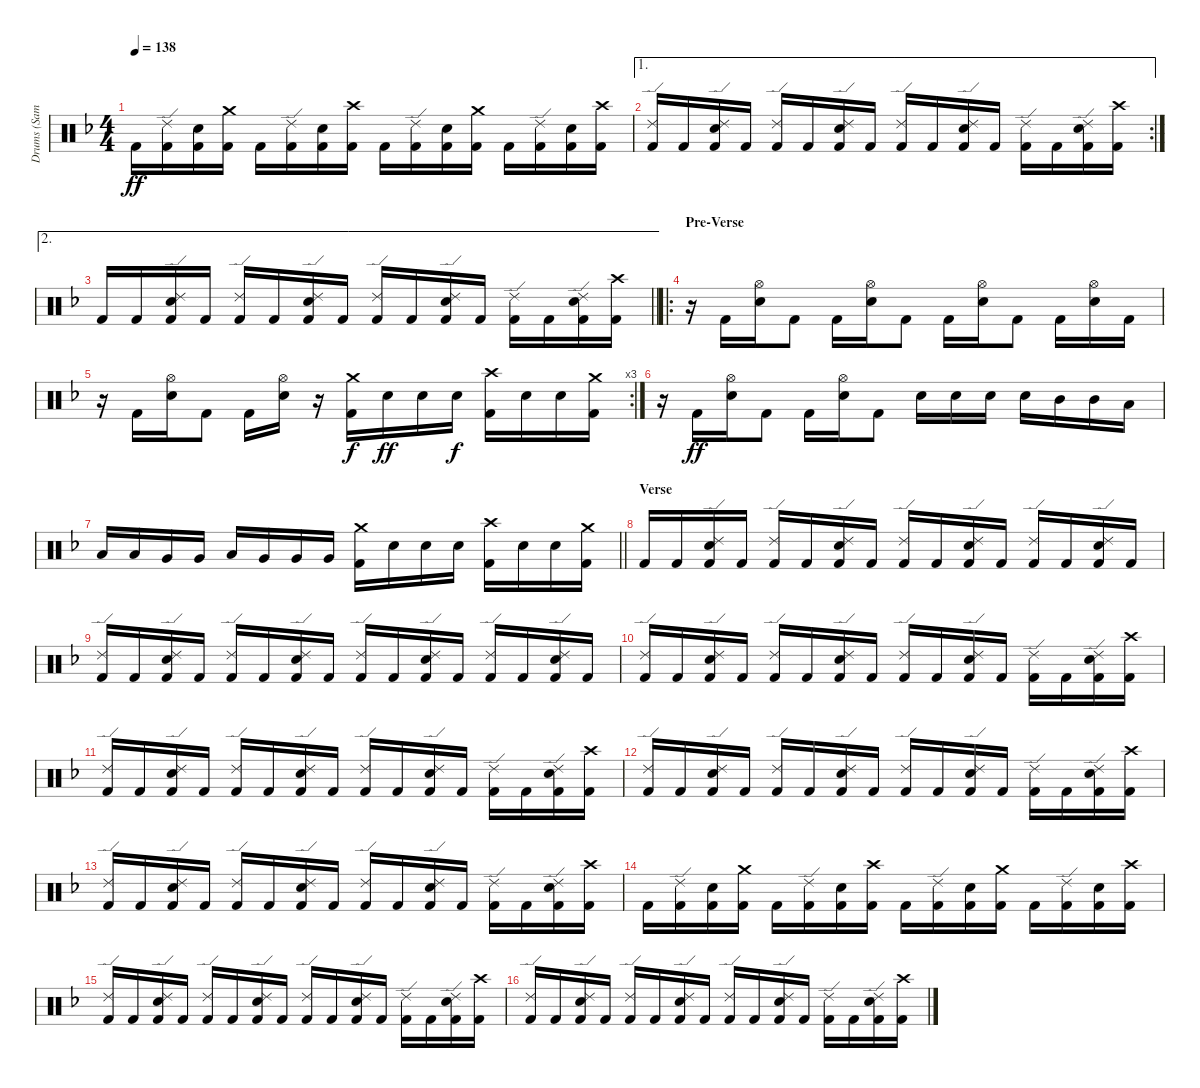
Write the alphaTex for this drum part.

\track ("Drums (Samuelson)" "Drums (Sam") {instrument percussion}
\staff {score}
\articulation defaults
\ts (4 4)
\tempo 138
\clef neutral
\ks f "Kick (hit) 2".16{dy ff}
("Ride (edge) 2" "Kick (hit) 2").16 ("Snare (hit) 2" "Kick (hit) 2").16 ("Crash medium (hit)" "Kick (hit) 2").16 "Kick (hit) 2".16 ("Ride (edge) 2" "Kick (hit) 2").16 ("Snare (hit) 2" "Kick (hit) 2").16 ("Crash high (hit)" "Kick (hit) 2").16 "Kick (hit) 2".16 ("Ride (edge) 2" "Kick (hit) 2").16 ("Snare (hit) 2" "Kick (hit) 2").16 ("Crash medium (hit)" "Kick (hit) 2").16 "Kick (hit) 2".16 ("Ride (edge) 2" "Kick (hit) 2").16 ("Snare (hit) 2" "Kick (hit) 2").16 ("Crash high (hit)" "Kick (hit) 2").16 |
\ae 1
\rc 2
("Ride (edge) 2" "Kick (hit) 2").16 "Kick (hit) 2".16 ("Ride (edge) 2" "Snare (hit) 2" "Kick (hit) 2").16 "Kick (hit) 2".16 ("Ride (edge) 2" "Kick (hit) 2").16 "Kick (hit) 2".16 ("Ride (edge) 2" "Snare (hit) 2" "Kick (hit) 2").16 "Kick (hit) 2".16 ("Ride (edge) 2" "Kick (hit) 2").16 "Kick (hit) 2".16 ("Ride (edge) 2" "Snare (hit) 2" "Kick (hit) 2").16 "Kick (hit) 2".16 ("Ride (edge) 2" "Kick (hit) 2").16 "Kick (hit) 2".16 ("Ride (edge) 2" "Snare (hit) 2" "Kick (hit) 2").16 ("Crash high (hit)" "Kick (hit) 2").16 |
\ae 2
\barLineRight lightlight "Kick (hit) 2".16 "Kick (hit) 2".16
("Ride (edge) 2" "Snare (hit) 2" "Kick (hit) 2").16 "Kick (hit) 2".16 ("Ride (edge) 2" "Kick (hit) 2").16 "Kick (hit) 2".16 ("Ride (edge) 2" "Snare (hit) 2" "Kick (hit) 2").16 "Kick (hit) 2".16 ("Ride (edge) 2" "Kick (hit) 2").16 "Kick (hit) 2".16 ("Ride (edge) 2" "Snare (hit) 2" "Kick (hit) 2").16 "Kick (hit) 2".16 ("Ride (edge) 2" "Kick (hit) 2").16 "Kick (hit) 2".16 ("Ride (edge) 2" "Snare (hit) 2" "Kick (hit) 2").16 ("Crash high (hit)" "Kick (hit) 2").16 |
\ro
\section ("" "Pre-Verse")
r.16 "Kick (hit) 2".16 ("Hi-Hat (open)" "Snare (hit) 2").16 "Kick (hit) 2".8 "Kick (hit) 2".16 ("Hi-Hat (open)" "Snare (hit) 2").16 "Kick (hit) 2".8 "Kick (hit) 2".16 ("Hi-Hat (open)" "Snare (hit) 2").16 "Kick (hit) 2".8 "Kick (hit) 2".16 ("Hi-Hat (open)" "Snare (hit) 2").16 "Kick (hit) 2".16 |
\rc 3
r.16 "Kick (hit) 2".16 ("Hi-Hat (open)" "Snare (hit) 2").16 "Kick (hit) 2".8 "Kick (hit) 2".16 ("Hi-Hat (open)" "Snare (hit) 2").16 r.16 ("Crash medium (hit)" "Kick (hit) 2").16{dy f} "Snare (hit) 2".16{dy ff} "Snare (hit) 2".16 "Snare (hit) 2".16{dy f} ("Crash high (hit)" "Kick (hit) 2").16 "Snare (hit) 2".16 "Snare (hit) 2".16 ("Crash medium (hit)" "Kick (hit) 2").16 |
r.16 "Kick (hit) 2".16{dy ff} ("Hi-Hat (open)" "Snare (hit) 2").16 "Kick (hit) 2".8 "Kick (hit) 2".16 ("Hi-Hat (open)" "Snare (hit) 2").16 "Kick (hit) 2".8 "Snare (hit) 2".16 "Snare (hit) 2".16 "Snare (hit) 2".16 "Snare (hit) 2".16 "Mid Tom (hit)".16 "Mid Tom (hit)".16 "Low Tom (hit)".16 |
\barLineRight lightlight "Low Tom (hit)".16 "Low Tom (hit)".16 "Very Low Tom (hit)".16 "Very Low Tom (hit)".16 "Low Tom (hit)".16 "Very Low Tom (hit)".16 "Very Low Tom (hit)".16 "Very Low Tom (hit)".16
("Crash medium (hit)" "Kick (hit) 2").16 "Snare (hit) 2".16 "Snare (hit) 2".16 "Snare (hit) 2".16 ("Crash high (hit)" "Kick (hit) 2").16 "Snare (hit) 2".16 "Snare (hit) 2".16 ("Crash medium (hit)" "Kick (hit) 2").16 |
\section ("" "Verse")
"Kick (hit) 2".16 "Kick (hit) 2".16 ("Ride (edge) 2" "Snare (hit) 2" "Kick (hit) 2").16 "Kick (hit) 2".16 ("Ride (edge) 2" "Kick (hit) 2").16 "Kick (hit) 2".16 ("Ride (edge) 2" "Snare (hit) 2" "Kick (hit) 2").16 "Kick (hit) 2".16 ("Ride (edge) 2" "Kick (hit) 2").16 "Kick (hit) 2".16 ("Ride (edge) 2" "Snare (hit) 2" "Kick (hit) 2").16 "Kick (hit) 2".16 ("Ride (edge) 2" "Kick (hit) 2").16 "Kick (hit) 2".16 ("Ride (edge) 2" "Snare (hit) 2" "Kick (hit) 2").16 "Kick (hit) 2".16 |
("Ride (edge) 2" "Kick (hit) 2").16 "Kick (hit) 2".16 ("Ride (edge) 2" "Snare (hit) 2" "Kick (hit) 2").16 "Kick (hit) 2".16 ("Ride (edge) 2" "Kick (hit) 2").16 "Kick (hit) 2".16 ("Ride (edge) 2" "Snare (hit) 2" "Kick (hit) 2").16 "Kick (hit) 2".16 ("Ride (edge) 2" "Kick (hit) 2").16 "Kick (hit) 2".16 ("Ride (edge) 2" "Snare (hit) 2" "Kick (hit) 2").16 "Kick (hit) 2".16 ("Ride (edge) 2" "Kick (hit) 2").16 "Kick (hit) 2".16 ("Ride (edge) 2" "Snare (hit) 2" "Kick (hit) 2").16 "Kick (hit) 2".16 |
("Ride (edge) 2" "Kick (hit) 2").16 "Kick (hit) 2".16 ("Ride (edge) 2" "Snare (hit) 2" "Kick (hit) 2").16 "Kick (hit) 2".16 ("Ride (edge) 2" "Kick (hit) 2").16 "Kick (hit) 2".16 ("Ride (edge) 2" "Snare (hit) 2" "Kick (hit) 2").16 "Kick (hit) 2".16 ("Ride (edge) 2" "Kick (hit) 2").16 "Kick (hit) 2".16 ("Ride (edge) 2" "Snare (hit) 2" "Kick (hit) 2").16 "Kick (hit) 2".16 ("Ride (edge) 2" "Kick (hit) 2").16 "Kick (hit) 2".16 ("Ride (edge) 2" "Snare (hit) 2" "Kick (hit) 2").16 ("Crash high (hit)" "Kick (hit) 2").16 |
("Ride (edge) 2" "Kick (hit) 2").16 "Kick (hit) 2".16 ("Ride (edge) 2" "Snare (hit) 2" "Kick (hit) 2").16 "Kick (hit) 2".16 ("Ride (edge) 2" "Kick (hit) 2").16 "Kick (hit) 2".16 ("Ride (edge) 2" "Snare (hit) 2" "Kick (hit) 2").16 "Kick (hit) 2".16 ("Ride (edge) 2" "Kick (hit) 2").16 "Kick (hit) 2".16 ("Ride (edge) 2" "Snare (hit) 2" "Kick (hit) 2").16 "Kick (hit) 2".16 ("Ride (edge) 2" "Kick (hit) 2").16 "Kick (hit) 2".16 ("Ride (edge) 2" "Snare (hit) 2" "Kick (hit) 2").16 ("Crash high (hit)" "Kick (hit) 2").16 |
("Ride (edge) 2" "Kick (hit) 2").16 "Kick (hit) 2".16 ("Ride (edge) 2" "Snare (hit) 2" "Kick (hit) 2").16 "Kick (hit) 2".16 ("Ride (edge) 2" "Kick (hit) 2").16 "Kick (hit) 2".16 ("Ride (edge) 2" "Snare (hit) 2" "Kick (hit) 2").16 "Kick (hit) 2".16 ("Ride (edge) 2" "Kick (hit) 2").16 "Kick (hit) 2".16 ("Ride (edge) 2" "Snare (hit) 2" "Kick (hit) 2").16 "Kick (hit) 2".16 ("Ride (edge) 2" "Kick (hit) 2").16 "Kick (hit) 2".16 ("Ride (edge) 2" "Snare (hit) 2" "Kick (hit) 2").16 ("Crash high (hit)" "Kick (hit) 2").16 |
("Ride (edge) 2" "Kick (hit) 2").16 "Kick (hit) 2".16 ("Ride (edge) 2" "Snare (hit) 2" "Kick (hit) 2").16 "Kick (hit) 2".16 ("Ride (edge) 2" "Kick (hit) 2").16 "Kick (hit) 2".16 ("Ride (edge) 2" "Snare (hit) 2" "Kick (hit) 2").16 "Kick (hit) 2".16 ("Ride (edge) 2" "Kick (hit) 2").16 "Kick (hit) 2".16 ("Ride (edge) 2" "Snare (hit) 2" "Kick (hit) 2").16 "Kick (hit) 2".16 ("Ride (edge) 2" "Kick (hit) 2").16 "Kick (hit) 2".16 ("Ride (edge) 2" "Snare (hit) 2" "Kick (hit) 2").16 ("Crash high (hit)" "Kick (hit) 2").16 |
"Kick (hit) 2".16 ("Ride (edge) 2" "Kick (hit) 2").16 ("Snare (hit) 2" "Kick (hit) 2").16 ("Crash medium (hit)" "Kick (hit) 2").16 "Kick (hit) 2".16 ("Ride (edge) 2" "Kick (hit) 2").16 ("Snare (hit) 2" "Kick (hit) 2").16 ("Crash high (hit)" "Kick (hit) 2").16 "Kick (hit) 2".16 ("Ride (edge) 2" "Kick (hit) 2").16 ("Snare (hit) 2" "Kick (hit) 2").16 ("Crash medium (hit)" "Kick (hit) 2").16 "Kick (hit) 2".16 ("Ride (edge) 2" "Kick (hit) 2").16 ("Snare (hit) 2" "Kick (hit) 2").16 ("Crash high (hit)" "Kick (hit) 2").16 |
("Ride (edge) 2" "Kick (hit) 2").16 "Kick (hit) 2".16 ("Ride (edge) 2" "Snare (hit) 2" "Kick (hit) 2").16 "Kick (hit) 2".16 ("Ride (edge) 2" "Kick (hit) 2").16 "Kick (hit) 2".16 ("Ride (edge) 2" "Snare (hit) 2" "Kick (hit) 2").16 "Kick (hit) 2".16 ("Ride (edge) 2" "Kick (hit) 2").16 "Kick (hit) 2".16 ("Ride (edge) 2" "Snare (hit) 2" "Kick (hit) 2").16 "Kick (hit) 2".16 ("Ride (edge) 2" "Kick (hit) 2").16 "Kick (hit) 2".16 ("Ride (edge) 2" "Snare (hit) 2" "Kick (hit) 2").16 ("Crash high (hit)" "Kick (hit) 2").16 |
("Ride (edge) 2" "Kick (hit) 2").16 "Kick (hit) 2".16 ("Ride (edge) 2" "Snare (hit) 2" "Kick (hit) 2").16 "Kick (hit) 2".16 ("Ride (edge) 2" "Kick (hit) 2").16 "Kick (hit) 2".16 ("Ride (edge) 2" "Snare (hit) 2" "Kick (hit) 2").16 "Kick (hit) 2".16 ("Ride (edge) 2" "Kick (hit) 2").16 "Kick (hit) 2".16 ("Ride (edge) 2" "Snare (hit) 2" "Kick (hit) 2").16 "Kick (hit) 2".16 ("Ride (edge) 2" "Kick (hit) 2").16 "Kick (hit) 2".16 ("Ride (edge) 2" "Snare (hit) 2" "Kick (hit) 2").16 ("Crash high (hit)" "Kick (hit) 2").16
